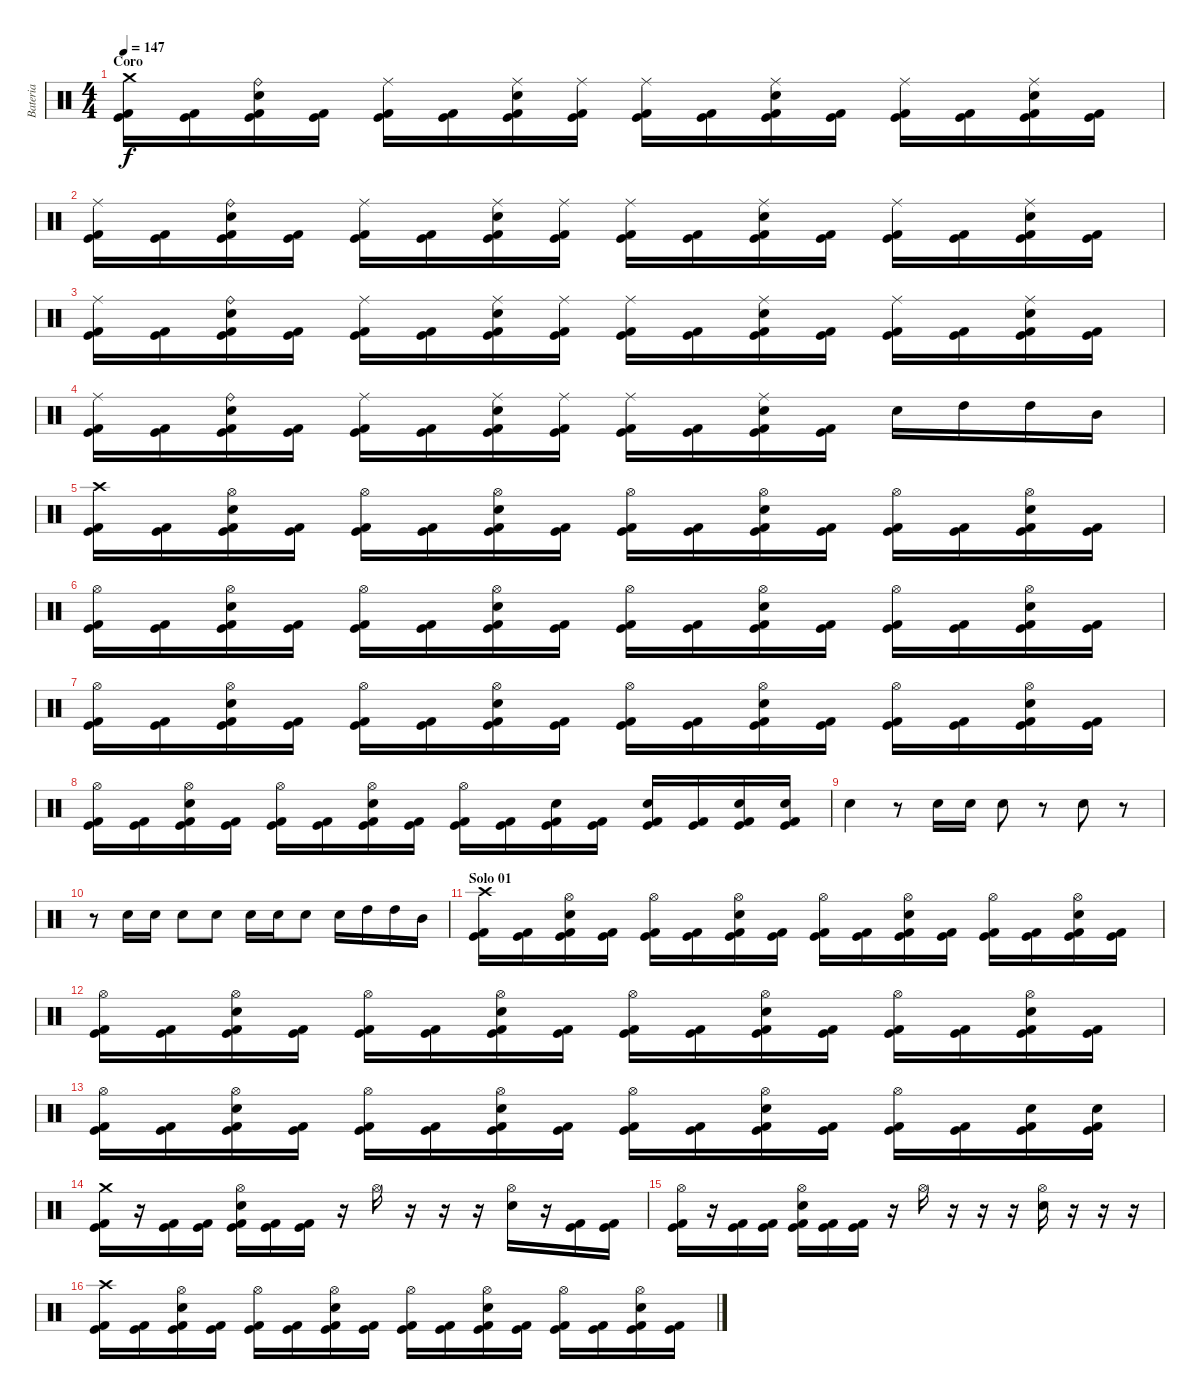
\track ("Bateria" "Bateria") {instrument percussion}
\staff {score}
\articulation defaults
\ts (4 4)
\section ("" "Coro")
\tempo 147
\clef neutral
\ks c
("Crash medium (hit)" "Kick (hit)" "Kick (hit) 2").16{dy f} ("Kick (hit)" "Kick (hit) 2").16 ("Ride (bell)" "Electric Snare (hit)" "Kick (hit)" "Kick (hit) 2").16 ("Kick (hit)" "Kick (hit) 2").16 ("Ride (middle)" "Kick (hit)" "Kick (hit) 2").16 ("Kick (hit)" "Kick (hit) 2").16 ("Ride (middle)" "Electric Snare (hit)" "Kick (hit)" "Kick (hit) 2").16 ("Ride (middle)" "Kick (hit)" "Kick (hit) 2").16 ("Ride (middle)" "Kick (hit)" "Kick (hit) 2").16 ("Kick (hit)" "Kick (hit) 2").16 ("Ride (middle)" "Electric Snare (hit)" "Kick (hit)" "Kick (hit) 2").16 ("Kick (hit)" "Kick (hit) 2").16 ("Ride (middle)" "Kick (hit)" "Kick (hit) 2").16 ("Kick (hit)" "Kick (hit) 2").16 ("Ride (middle)" "Electric Snare (hit)" "Kick (hit)" "Kick (hit) 2").16 ("Kick (hit)" "Kick (hit) 2").16 |
("Ride (middle)" "Kick (hit)" "Kick (hit) 2").16 ("Kick (hit)" "Kick (hit) 2").16 ("Ride (bell)" "Electric Snare (hit)" "Kick (hit)" "Kick (hit) 2").16 ("Kick (hit)" "Kick (hit) 2").16 ("Ride (middle)" "Kick (hit)" "Kick (hit) 2").16 ("Kick (hit)" "Kick (hit) 2").16 ("Ride (middle)" "Electric Snare (hit)" "Kick (hit)" "Kick (hit) 2").16 ("Ride (middle)" "Kick (hit)" "Kick (hit) 2").16 ("Ride (middle)" "Kick (hit)" "Kick (hit) 2").16 ("Kick (hit)" "Kick (hit) 2").16 ("Ride (middle)" "Electric Snare (hit)" "Kick (hit)" "Kick (hit) 2").16 ("Kick (hit)" "Kick (hit) 2").16 ("Ride (middle)" "Kick (hit)" "Kick (hit) 2").16 ("Kick (hit)" "Kick (hit) 2").16 ("Ride (middle)" "Electric Snare (hit)" "Kick (hit)" "Kick (hit) 2").16 ("Kick (hit)" "Kick (hit) 2").16 |
("Ride (middle)" "Kick (hit)" "Kick (hit) 2").16 ("Kick (hit)" "Kick (hit) 2").16 ("Ride (bell)" "Electric Snare (hit)" "Kick (hit)" "Kick (hit) 2").16 ("Kick (hit)" "Kick (hit) 2").16 ("Ride (middle)" "Kick (hit)" "Kick (hit) 2").16 ("Kick (hit)" "Kick (hit) 2").16 ("Ride (middle)" "Electric Snare (hit)" "Kick (hit)" "Kick (hit) 2").16 ("Ride (middle)" "Kick (hit)" "Kick (hit) 2").16 ("Ride (middle)" "Kick (hit)" "Kick (hit) 2").16 ("Kick (hit)" "Kick (hit) 2").16 ("Ride (middle)" "Electric Snare (hit)" "Kick (hit)" "Kick (hit) 2").16 ("Kick (hit)" "Kick (hit) 2").16 ("Ride (middle)" "Kick (hit)" "Kick (hit) 2").16 ("Kick (hit)" "Kick (hit) 2").16 ("Ride (middle)" "Electric Snare (hit)" "Kick (hit)" "Kick (hit) 2").16 ("Kick (hit)" "Kick (hit) 2").16 |
("Ride (middle)" "Kick (hit)" "Kick (hit) 2").16 ("Kick (hit)" "Kick (hit) 2").16 ("Ride (bell)" "Electric Snare (hit)" "Kick (hit)" "Kick (hit) 2").16 ("Kick (hit)" "Kick (hit) 2").16 ("Ride (middle)" "Kick (hit)" "Kick (hit) 2").16 ("Kick (hit)" "Kick (hit) 2").16 ("Ride (middle)" "Electric Snare (hit)" "Kick (hit)" "Kick (hit) 2").16 ("Ride (middle)" "Kick (hit)" "Kick (hit) 2").16 ("Ride (middle)" "Kick (hit)" "Kick (hit) 2").16 ("Kick (hit)" "Kick (hit) 2").16 ("Ride (middle)" "Electric Snare (hit)" "Kick (hit)" "Kick (hit) 2").16 ("Kick (hit)" "Kick (hit) 2").16 "Electric Snare (hit)".16 "High Tom (hit)".16 "High Tom (hit)".16 "Mid Tom (hit)".16 |
("Crash high (hit)" "Kick (hit)" "Kick (hit) 2").16 ("Kick (hit)" "Kick (hit) 2").16 ("Hi-Hat (open)" "Electric Snare (hit)" "Kick (hit)" "Kick (hit) 2").16 ("Kick (hit)" "Kick (hit) 2").16 ("Hi-Hat (open)" "Kick (hit)" "Kick (hit) 2").16 ("Kick (hit)" "Kick (hit) 2").16 ("Hi-Hat (open)" "Electric Snare (hit)" "Kick (hit)" "Kick (hit) 2").16 ("Kick (hit)" "Kick (hit) 2").16 ("Hi-Hat (open)" "Kick (hit)" "Kick (hit) 2").16 ("Kick (hit)" "Kick (hit) 2").16 ("Hi-Hat (open)" "Electric Snare (hit)" "Kick (hit)" "Kick (hit) 2").16 ("Kick (hit)" "Kick (hit) 2").16 ("Hi-Hat (open)" "Kick (hit)" "Kick (hit) 2").16 ("Kick (hit)" "Kick (hit) 2").16 ("Hi-Hat (open)" "Electric Snare (hit)" "Kick (hit)" "Kick (hit) 2").16 ("Kick (hit)" "Kick (hit) 2").16 |
("Hi-Hat (open)" "Kick (hit)" "Kick (hit) 2").16 ("Kick (hit)" "Kick (hit) 2").16 ("Hi-Hat (open)" "Electric Snare (hit)" "Kick (hit)" "Kick (hit) 2").16 ("Kick (hit)" "Kick (hit) 2").16 ("Hi-Hat (open)" "Kick (hit)" "Kick (hit) 2").16 ("Kick (hit)" "Kick (hit) 2").16 ("Hi-Hat (open)" "Electric Snare (hit)" "Kick (hit)" "Kick (hit) 2").16 ("Kick (hit)" "Kick (hit) 2").16 ("Hi-Hat (open)" "Kick (hit)" "Kick (hit) 2").16 ("Kick (hit)" "Kick (hit) 2").16 ("Hi-Hat (open)" "Electric Snare (hit)" "Kick (hit)" "Kick (hit) 2").16 ("Kick (hit)" "Kick (hit) 2").16 ("Hi-Hat (open)" "Kick (hit)" "Kick (hit) 2").16 ("Kick (hit)" "Kick (hit) 2").16 ("Hi-Hat (open)" "Electric Snare (hit)" "Kick (hit)" "Kick (hit) 2").16 ("Kick (hit)" "Kick (hit) 2").16 |
("Hi-Hat (open)" "Kick (hit)" "Kick (hit) 2").16 ("Kick (hit)" "Kick (hit) 2").16 ("Hi-Hat (open)" "Electric Snare (hit)" "Kick (hit)" "Kick (hit) 2").16 ("Kick (hit)" "Kick (hit) 2").16 ("Hi-Hat (open)" "Kick (hit)" "Kick (hit) 2").16 ("Kick (hit)" "Kick (hit) 2").16 ("Hi-Hat (open)" "Electric Snare (hit)" "Kick (hit)" "Kick (hit) 2").16 ("Kick (hit)" "Kick (hit) 2").16 ("Hi-Hat (open)" "Kick (hit)" "Kick (hit) 2").16 ("Kick (hit)" "Kick (hit) 2").16 ("Hi-Hat (open)" "Electric Snare (hit)" "Kick (hit)" "Kick (hit) 2").16 ("Kick (hit)" "Kick (hit) 2").16 ("Hi-Hat (open)" "Kick (hit)" "Kick (hit) 2").16 ("Kick (hit)" "Kick (hit) 2").16 ("Hi-Hat (open)" "Electric Snare (hit)" "Kick (hit)" "Kick (hit) 2").16 ("Kick (hit)" "Kick (hit) 2").16 |
("Hi-Hat (open)" "Kick (hit)" "Kick (hit) 2").16 ("Kick (hit)" "Kick (hit) 2").16 ("Hi-Hat (open)" "Electric Snare (hit)" "Kick (hit)" "Kick (hit) 2").16 ("Kick (hit)" "Kick (hit) 2").16 ("Hi-Hat (open)" "Kick (hit)" "Kick (hit) 2").16 ("Kick (hit)" "Kick (hit) 2").16 ("Hi-Hat (open)" "Electric Snare (hit)" "Kick (hit)" "Kick (hit) 2").16 ("Kick (hit)" "Kick (hit) 2").16 ("Hi-Hat (open)" "Kick (hit)" "Kick (hit) 2").16 ("Kick (hit)" "Kick (hit) 2").16 ("Electric Snare (hit)" "Kick (hit)" "Kick (hit) 2").16 ("Kick (hit)" "Kick (hit) 2").16 ("Electric Snare (hit)" "Kick (hit)" "Kick (hit) 2").16 ("Kick (hit)" "Kick (hit) 2").16 ("Electric Snare (hit)" "Kick (hit)" "Kick (hit) 2").16 ("Electric Snare (hit)" "Kick (hit)" "Kick (hit) 2").16 |
"Electric Snare (hit)".4 r.8 "Electric Snare (hit)".16 "Electric Snare (hit)".16 "Electric Snare (hit)".8 r.8 "Electric Snare (hit)".8 r.8 |
r.8 "Electric Snare (hit)".16 "Electric Snare (hit)".16 "Electric Snare (hit)".8 "Electric Snare (hit)".8 "Electric Snare (hit)".16 "Electric Snare (hit)".16 "Electric Snare (hit)".8 "Electric Snare (hit)".16 "High Tom (hit)".16 "High Tom (hit)".16 "Mid Tom (hit)".16 |
\section ("" "Solo 01")
("Crash high (hit)" "Kick (hit)" "Kick (hit) 2").16 ("Kick (hit)" "Kick (hit) 2").16 ("Hi-Hat (open)" "Electric Snare (hit)" "Kick (hit)" "Kick (hit) 2").16 ("Kick (hit)" "Kick (hit) 2").16 ("Hi-Hat (open)" "Kick (hit)" "Kick (hit) 2").16 ("Kick (hit)" "Kick (hit) 2").16 ("Hi-Hat (open)" "Electric Snare (hit)" "Kick (hit)" "Kick (hit) 2").16 ("Kick (hit)" "Kick (hit) 2").16 ("Hi-Hat (open)" "Kick (hit)" "Kick (hit) 2").16 ("Kick (hit)" "Kick (hit) 2").16 ("Hi-Hat (open)" "Electric Snare (hit)" "Kick (hit)" "Kick (hit) 2").16 ("Kick (hit)" "Kick (hit) 2").16 ("Hi-Hat (open)" "Kick (hit)" "Kick (hit) 2").16 ("Kick (hit)" "Kick (hit) 2").16 ("Hi-Hat (open)" "Electric Snare (hit)" "Kick (hit)" "Kick (hit) 2").16 ("Kick (hit)" "Kick (hit) 2").16 |
("Hi-Hat (open)" "Kick (hit)" "Kick (hit) 2").16 ("Kick (hit)" "Kick (hit) 2").16 ("Hi-Hat (open)" "Electric Snare (hit)" "Kick (hit)" "Kick (hit) 2").16 ("Kick (hit)" "Kick (hit) 2").16 ("Hi-Hat (open)" "Kick (hit)" "Kick (hit) 2").16 ("Kick (hit)" "Kick (hit) 2").16 ("Hi-Hat (open)" "Electric Snare (hit)" "Kick (hit)" "Kick (hit) 2").16 ("Kick (hit)" "Kick (hit) 2").16 ("Hi-Hat (open)" "Kick (hit)" "Kick (hit) 2").16 ("Kick (hit)" "Kick (hit) 2").16 ("Hi-Hat (open)" "Electric Snare (hit)" "Kick (hit)" "Kick (hit) 2").16 ("Kick (hit)" "Kick (hit) 2").16 ("Hi-Hat (open)" "Kick (hit)" "Kick (hit) 2").16 ("Kick (hit)" "Kick (hit) 2").16 ("Hi-Hat (open)" "Electric Snare (hit)" "Kick (hit)" "Kick (hit) 2").16 ("Kick (hit)" "Kick (hit) 2").16 |
("Hi-Hat (open)" "Kick (hit)" "Kick (hit) 2").16 ("Kick (hit)" "Kick (hit) 2").16 ("Hi-Hat (open)" "Electric Snare (hit)" "Kick (hit)" "Kick (hit) 2").16 ("Kick (hit)" "Kick (hit) 2").16 ("Hi-Hat (open)" "Kick (hit)" "Kick (hit) 2").16 ("Kick (hit)" "Kick (hit) 2").16 ("Hi-Hat (open)" "Electric Snare (hit)" "Kick (hit)" "Kick (hit) 2").16 ("Kick (hit)" "Kick (hit) 2").16 ("Hi-Hat (open)" "Kick (hit)" "Kick (hit) 2").16 ("Kick (hit)" "Kick (hit) 2").16 ("Hi-Hat (open)" "Electric Snare (hit)" "Kick (hit)" "Kick (hit) 2").16 ("Kick (hit)" "Kick (hit) 2").16 ("Hi-Hat (open)" "Kick (hit)" "Kick (hit) 2").16 ("Kick (hit)" "Kick (hit) 2").16 ("Electric Snare (hit)" "Kick (hit)" "Kick (hit) 2").16 ("Electric Snare (hit)" "Kick (hit)" "Kick (hit) 2").16 |
("Crash medium (hit)" "Kick (hit)" "Kick (hit) 2").16 r.16 ("Kick (hit)" "Kick (hit) 2").16 ("Kick (hit)" "Kick (hit) 2").16 ("Hi-Hat (open)" "Electric Snare (hit)" "Kick (hit)" "Kick (hit) 2").16 ("Kick (hit)" "Kick (hit) 2").16 ("Kick (hit)" "Kick (hit) 2").16 r.16 "Hi-Hat (open)".16 r.16 r.16 r.16 ("Hi-Hat (open)" "Electric Snare (hit)").16 r.16 ("Kick (hit)" "Kick (hit) 2").16 ("Kick (hit)" "Kick (hit) 2").16 |
("Hi-Hat (open)" "Kick (hit)" "Kick (hit) 2").16 r.16 ("Kick (hit)" "Kick (hit) 2").16 ("Kick (hit)" "Kick (hit) 2").16 ("Hi-Hat (open)" "Electric Snare (hit)" "Kick (hit)" "Kick (hit) 2").16 ("Kick (hit)" "Kick (hit) 2").16 ("Kick (hit)" "Kick (hit) 2").16 r.16 "Hi-Hat (open)".16 r.16 r.16 r.16 ("Hi-Hat (open)" "Electric Snare (hit)").16 r.16 r.16 r.16 |
("Crash high (hit)" "Kick (hit)" "Kick (hit) 2").16 ("Kick (hit)" "Kick (hit) 2").16 ("Hi-Hat (open)" "Electric Snare (hit)" "Kick (hit)" "Kick (hit) 2").16 ("Kick (hit)" "Kick (hit) 2").16 ("Hi-Hat (open)" "Kick (hit)" "Kick (hit) 2").16 ("Kick (hit)" "Kick (hit) 2").16 ("Hi-Hat (open)" "Electric Snare (hit)" "Kick (hit)" "Kick (hit) 2").16 ("Kick (hit)" "Kick (hit) 2").16 ("Hi-Hat (open)" "Kick (hit)" "Kick (hit) 2").16 ("Kick (hit)" "Kick (hit) 2").16 ("Hi-Hat (open)" "Electric Snare (hit)" "Kick (hit)" "Kick (hit) 2").16 ("Kick (hit)" "Kick (hit) 2").16 ("Hi-Hat (open)" "Kick (hit)" "Kick (hit) 2").16 ("Kick (hit)" "Kick (hit) 2").16 ("Hi-Hat (open)" "Electric Snare (hit)" "Kick (hit)" "Kick (hit) 2").16 ("Kick (hit)" "Kick (hit) 2").16
